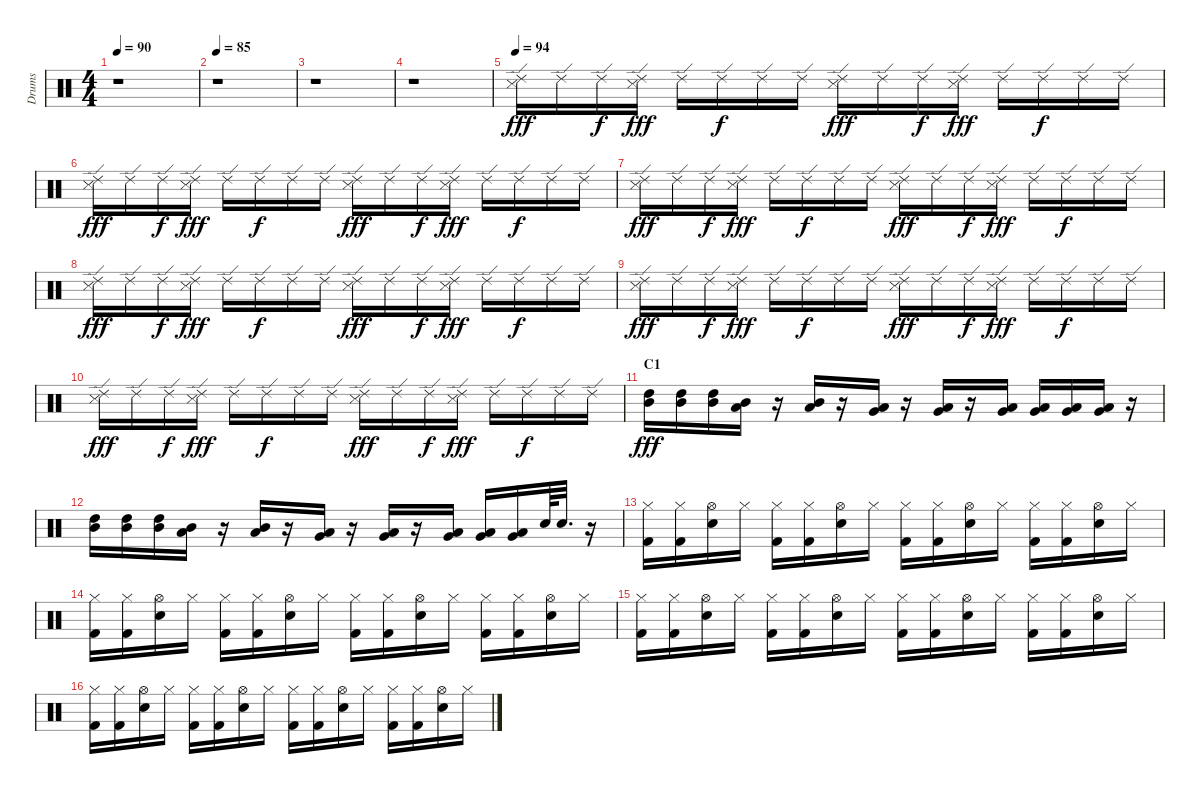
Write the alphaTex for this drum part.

\track ("Drums" "Drums") {instrument percussion}
\staff {score}
\articulation defaults
\ts (4 4)
\tempo 90
\clef neutral
\ks c
r.1{dy fff} |
\tempo 85
r.1 |
r.1 |
r.1 |
\tempo 94
("Ride (edge) 2" "Snare (side stick) 3").16 "Ride (edge) 2".16 "Ride (edge) 2".16{dy f} ("Ride (edge) 2" "Snare (side stick) 3").16{dy fff} "Ride (edge) 2".16 "Ride (edge) 2".16{dy f} "Ride (edge) 2".16 "Ride (edge) 2".16 ("Ride (edge) 2" "Snare (side stick) 3").16{dy fff} "Ride (edge) 2".16 "Ride (edge) 2".16{dy f} ("Ride (edge) 2" "Snare (side stick) 3").16{dy fff} "Ride (edge) 2".16 "Ride (edge) 2".16{dy f} "Ride (edge) 2".16 "Ride (edge) 2".16 |
("Ride (edge) 2" "Snare (side stick) 3").16{dy fff} "Ride (edge) 2".16 "Ride (edge) 2".16{dy f} ("Ride (edge) 2" "Snare (side stick) 3").16{dy fff} "Ride (edge) 2".16 "Ride (edge) 2".16{dy f} "Ride (edge) 2".16 "Ride (edge) 2".16 ("Ride (edge) 2" "Snare (side stick) 3").16{dy fff} "Ride (edge) 2".16 "Ride (edge) 2".16{dy f} ("Ride (edge) 2" "Snare (side stick) 3").16{dy fff} "Ride (edge) 2".16 "Ride (edge) 2".16{dy f} "Ride (edge) 2".16 "Ride (edge) 2".16 |
("Ride (edge) 2" "Snare (side stick) 3").16{dy fff} "Ride (edge) 2".16 "Ride (edge) 2".16{dy f} ("Ride (edge) 2" "Snare (side stick) 3").16{dy fff} "Ride (edge) 2".16 "Ride (edge) 2".16{dy f} "Ride (edge) 2".16 "Ride (edge) 2".16 ("Ride (edge) 2" "Snare (side stick) 3").16{dy fff} "Ride (edge) 2".16 "Ride (edge) 2".16{dy f} ("Ride (edge) 2" "Snare (side stick) 3").16{dy fff} "Ride (edge) 2".16 "Ride (edge) 2".16{dy f} "Ride (edge) 2".16 "Ride (edge) 2".16 |
("Ride (edge) 2" "Snare (side stick) 3").16{dy fff} "Ride (edge) 2".16 "Ride (edge) 2".16{dy f} ("Ride (edge) 2" "Snare (side stick) 3").16{dy fff} "Ride (edge) 2".16 "Ride (edge) 2".16{dy f} "Ride (edge) 2".16 "Ride (edge) 2".16 ("Ride (edge) 2" "Snare (side stick) 3").16{dy fff} "Ride (edge) 2".16 "Ride (edge) 2".16{dy f} ("Ride (edge) 2" "Snare (side stick) 3").16{dy fff} "Ride (edge) 2".16 "Ride (edge) 2".16{dy f} "Ride (edge) 2".16 "Ride (edge) 2".16 |
("Ride (edge) 2" "Snare (side stick) 3").16{dy fff} "Ride (edge) 2".16 "Ride (edge) 2".16{dy f} ("Ride (edge) 2" "Snare (side stick) 3").16{dy fff} "Ride (edge) 2".16 "Ride (edge) 2".16{dy f} "Ride (edge) 2".16 "Ride (edge) 2".16 ("Ride (edge) 2" "Snare (side stick) 3").16{dy fff} "Ride (edge) 2".16 "Ride (edge) 2".16{dy f} ("Ride (edge) 2" "Snare (side stick) 3").16{dy fff} "Ride (edge) 2".16 "Ride (edge) 2".16{dy f} "Ride (edge) 2".16 "Ride (edge) 2".16 |
("Ride (edge) 2" "Snare (side stick) 3").16{dy fff} "Ride (edge) 2".16 "Ride (edge) 2".16{dy f} ("Ride (edge) 2" "Snare (side stick) 3").16{dy fff} "Ride (edge) 2".16 "Ride (edge) 2".16{dy f} "Ride (edge) 2".16 "Ride (edge) 2".16 ("Ride (edge) 2" "Snare (side stick) 3").16{dy fff} "Ride (edge) 2".16 "Ride (edge) 2".16{dy f} ("Ride (edge) 2" "Snare (side stick) 3").16{dy fff} "Ride (edge) 2".16 "Ride (edge) 2".16{dy f} "Ride (edge) 2".16 "Ride (edge) 2".16 |
\section ("" "C1")
("High Tom (hit)" "Mid Tom (hit)").16{dy fff} ("High Tom (hit)" "Mid Tom (hit)").16 ("High Tom (hit)" "Mid Tom (hit)").16 ("Mid Tom (hit)" "Low Tom (hit)").16 r.16 ("Mid Tom (hit)" "Low Tom (hit)").16 r.16 ("Low Tom (hit)" "Very Low Tom (hit)").16 r.16 ("Low Tom (hit)" "Very Low Tom (hit)").16 r.16 ("Very Low Tom (hit)" "Low Floor Tom (hit)").16 ("Very Low Tom (hit)" "Low Floor Tom (hit)").16 ("Very Low Tom (hit)" "Low Floor Tom (hit)").16 ("Very Low Tom (hit)" "Low Floor Tom (hit)").16 r.16 |
("High Tom (hit)" "Mid Tom (hit)").16 ("High Tom (hit)" "Mid Tom (hit)").16 ("High Tom (hit)" "Mid Tom (hit)").16 ("Mid Tom (hit)" "Low Tom (hit)").16 r.16 ("Mid Tom (hit)" "Low Tom (hit)").16 r.16 ("Low Tom (hit)" "Very Low Tom (hit)").16 r.16 ("Low Tom (hit)" "Very Low Tom (hit)").16 r.16 ("Very Low Tom (hit)" "Low Floor Tom (hit)").16 ("Very Low Tom (hit)" "Low Floor Tom (hit)").16 ("Very Low Tom (hit)" "Low Floor Tom (hit)").16 "Snare (hit) 2".64 "Snare (hit) 2".32{d} r.16 |
("Hi-Hat (closed)" "Kick (hit) 2").16 ("Hi-Hat (closed)" "Kick (hit) 2").16 ("Hi-Hat (open)" "Snare (hit) 2").16 "Hi-Hat (closed)".16 ("Hi-Hat (closed)" "Kick (hit) 2").16 ("Hi-Hat (closed)" "Kick (hit) 2").16 ("Hi-Hat (open)" "Snare (hit) 2").16 "Hi-Hat (closed)".16 ("Hi-Hat (closed)" "Kick (hit) 2").16 ("Hi-Hat (closed)" "Kick (hit) 2").16 ("Hi-Hat (open)" "Snare (hit) 2").16 "Hi-Hat (closed)".16 ("Hi-Hat (closed)" "Kick (hit) 2").16 ("Hi-Hat (closed)" "Kick (hit) 2").16 ("Hi-Hat (open)" "Snare (hit) 2").16 "Hi-Hat (closed)".16 |
("Hi-Hat (closed)" "Kick (hit) 2").16 ("Hi-Hat (closed)" "Kick (hit) 2").16 ("Hi-Hat (open)" "Snare (hit) 2").16 "Hi-Hat (closed)".16 ("Hi-Hat (closed)" "Kick (hit) 2").16 ("Hi-Hat (closed)" "Kick (hit) 2").16 ("Hi-Hat (open)" "Snare (hit) 2").16 "Hi-Hat (closed)".16 ("Hi-Hat (closed)" "Kick (hit) 2").16 ("Hi-Hat (closed)" "Kick (hit) 2").16 ("Hi-Hat (open)" "Snare (hit) 2").16 "Hi-Hat (closed)".16 ("Hi-Hat (closed)" "Kick (hit) 2").16 ("Hi-Hat (closed)" "Kick (hit) 2").16 ("Hi-Hat (open)" "Snare (hit) 2").16 "Hi-Hat (closed)".16 |
("Hi-Hat (closed)" "Kick (hit) 2").16 ("Hi-Hat (closed)" "Kick (hit) 2").16 ("Hi-Hat (open)" "Snare (hit) 2").16 "Hi-Hat (closed)".16 ("Hi-Hat (closed)" "Kick (hit) 2").16 ("Hi-Hat (closed)" "Kick (hit) 2").16 ("Hi-Hat (open)" "Snare (hit) 2").16 "Hi-Hat (closed)".16 ("Hi-Hat (closed)" "Kick (hit) 2").16 ("Hi-Hat (closed)" "Kick (hit) 2").16 ("Hi-Hat (open)" "Snare (hit) 2").16 "Hi-Hat (closed)".16 ("Hi-Hat (closed)" "Kick (hit) 2").16 ("Hi-Hat (closed)" "Kick (hit) 2").16 ("Hi-Hat (open)" "Snare (hit) 2").16 "Hi-Hat (closed)".16 |
("Hi-Hat (closed)" "Kick (hit) 2").16 ("Hi-Hat (closed)" "Kick (hit) 2").16 ("Hi-Hat (open)" "Snare (hit) 2").16 "Hi-Hat (closed)".16 ("Hi-Hat (closed)" "Kick (hit) 2").16 ("Hi-Hat (closed)" "Kick (hit) 2").16 ("Hi-Hat (open)" "Snare (hit) 2").16 "Hi-Hat (closed)".16 ("Hi-Hat (closed)" "Kick (hit) 2").16 ("Hi-Hat (closed)" "Kick (hit) 2").16 ("Hi-Hat (open)" "Snare (hit) 2").16 "Hi-Hat (closed)".16 ("Hi-Hat (closed)" "Kick (hit) 2").16 ("Hi-Hat (closed)" "Kick (hit) 2").16 ("Hi-Hat (open)" "Snare (hit) 2").16 "Hi-Hat (closed)".16
